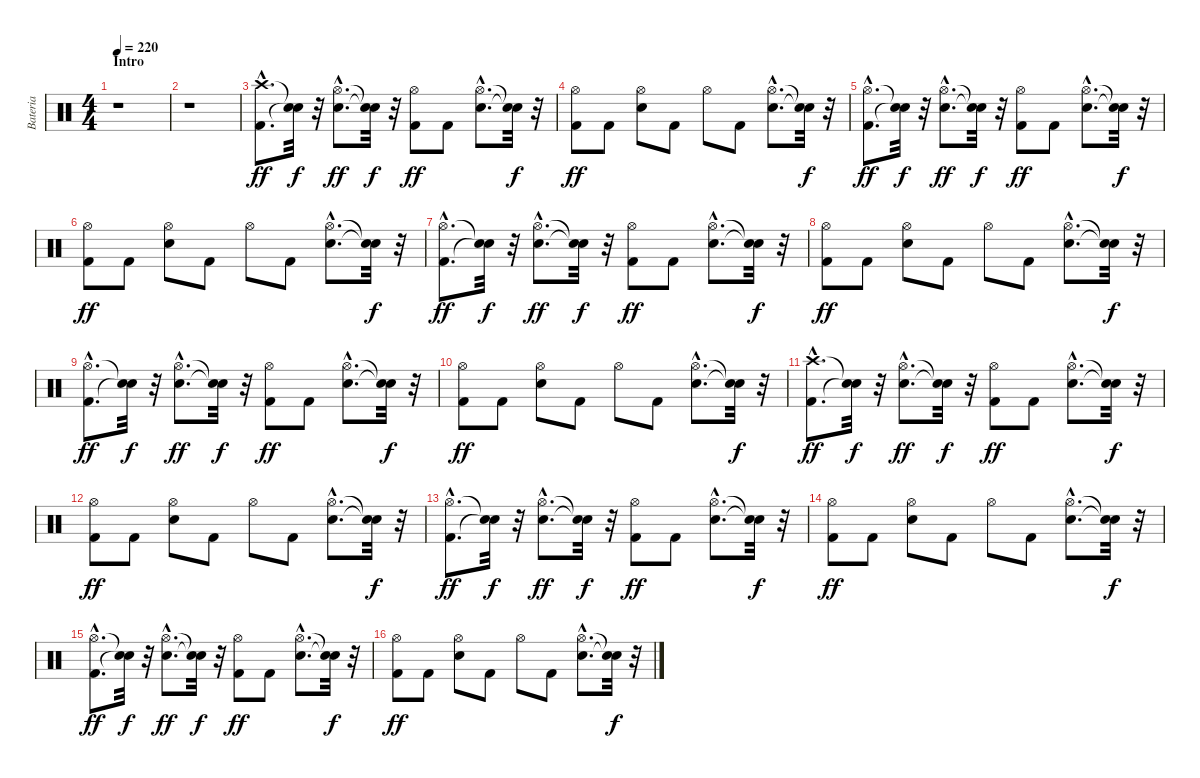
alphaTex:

\track ("Bateria" "Bateria") {instrument percussion}
\staff {score}
\articulation defaults
\ts (4 4)
\section ("" "Intro")
\tempo 220
\clef neutral
\ks c
r.1{dy ff} |
r.1 |
("Kick (hit) 2"{hac} "Crash high (hit)"{hac}).8{d} ("Snare (hit)"{t} "Snare (hit)"{t}).32{dy f} r.32 ("Electric Snare (hit)"{hac} "Hi-Hat (open)"{hac}).8{d dy ff} ("Snare (hit)"{t} "Snare (hit)"{t}).32{dy f} r.32 ("Kick (hit) 2" "Hi-Hat (open)").8{dy ff} "Kick (hit) 2".8 ("Electric Snare (hit)"{hac} "Hi-Hat (open)"{hac}).8{d} ("Snare (hit)"{t} "Snare (hit)"{t}).32{dy f} r.32 |
("Kick (hit) 2" "Hi-Hat (open)").8{dy ff} "Kick (hit) 2".8 ("Electric Snare (hit)" "Hi-Hat (open)").8 "Kick (hit) 2".8 "Hi-Hat (open)".8 "Kick (hit) 2".8 ("Electric Snare (hit)"{hac} "Hi-Hat (open)"{hac}).8{d} ("Snare (hit)"{t} "Snare (hit)"{t}).32{dy f} r.32 |
("Kick (hit) 2"{hac} "Hi-Hat (open)"{hac}).8{d dy ff} ("Snare (hit)"{t} "Snare (hit)"{t}).32{dy f} r.32 ("Electric Snare (hit)"{hac} "Hi-Hat (open)"{hac}).8{d dy ff} ("Snare (hit)"{t} "Snare (hit)"{t}).32{dy f} r.32 ("Kick (hit) 2" "Hi-Hat (open)").8{dy ff} "Kick (hit) 2".8 ("Electric Snare (hit)"{hac} "Hi-Hat (open)"{hac}).8{d} ("Snare (hit)"{t} "Snare (hit)"{t}).32{dy f} r.32 |
("Kick (hit) 2" "Hi-Hat (open)").8{dy ff} "Kick (hit) 2".8 ("Electric Snare (hit)" "Hi-Hat (open)").8 "Kick (hit) 2".8 "Hi-Hat (open)".8 "Kick (hit) 2".8 ("Electric Snare (hit)"{hac} "Hi-Hat (open)"{hac}).8{d} ("Snare (hit)"{t} "Snare (hit)"{t}).32{dy f} r.32 |
("Kick (hit) 2"{hac} "Hi-Hat (open)"{hac}).8{d dy ff} ("Snare (hit)"{t} "Snare (hit)"{t}).32{dy f} r.32 ("Electric Snare (hit)"{hac} "Hi-Hat (open)"{hac}).8{d dy ff} ("Snare (hit)"{t} "Snare (hit)"{t}).32{dy f} r.32 ("Kick (hit) 2" "Hi-Hat (open)").8{dy ff} "Kick (hit) 2".8 ("Electric Snare (hit)"{hac} "Hi-Hat (open)"{hac}).8{d} ("Snare (hit)"{t} "Snare (hit)"{t}).32{dy f} r.32 |
("Kick (hit) 2" "Hi-Hat (open)").8{dy ff} "Kick (hit) 2".8 ("Electric Snare (hit)" "Hi-Hat (open)").8 "Kick (hit) 2".8 "Hi-Hat (open)".8 "Kick (hit) 2".8 ("Electric Snare (hit)"{hac} "Hi-Hat (open)"{hac}).8{d} ("Snare (hit)"{t} "Snare (hit)"{t}).32{dy f} r.32 |
("Kick (hit) 2"{hac} "Hi-Hat (open)"{hac}).8{d dy ff} ("Snare (hit)"{t} "Snare (hit)"{t}).32{dy f} r.32 ("Electric Snare (hit)"{hac} "Hi-Hat (open)"{hac}).8{d dy ff} ("Snare (hit)"{t} "Snare (hit)"{t}).32{dy f} r.32 ("Kick (hit) 2" "Hi-Hat (open)").8{dy ff} "Kick (hit) 2".8 ("Electric Snare (hit)"{hac} "Hi-Hat (open)"{hac}).8{d} ("Snare (hit)"{t} "Snare (hit)"{t}).32{dy f} r.32 |
("Kick (hit) 2" "Hi-Hat (open)").8{dy ff} "Kick (hit) 2".8 ("Electric Snare (hit)" "Hi-Hat (open)").8 "Kick (hit) 2".8 "Hi-Hat (open)".8 "Kick (hit) 2".8 ("Electric Snare (hit)"{hac} "Hi-Hat (open)"{hac}).8{d} ("Snare (hit)"{t} "Snare (hit)"{t}).32{dy f} r.32 |
("Kick (hit) 2"{hac} "Crash high (hit)"{hac}).8{d dy ff} ("Snare (hit)"{t} "Snare (hit)"{t}).32{dy f} r.32 ("Electric Snare (hit)"{hac} "Hi-Hat (open)"{hac}).8{d dy ff} ("Snare (hit)"{t} "Snare (hit)"{t}).32{dy f} r.32 ("Kick (hit) 2" "Hi-Hat (open)").8{dy ff} "Kick (hit) 2".8 ("Electric Snare (hit)"{hac} "Hi-Hat (open)"{hac}).8{d} ("Snare (hit)"{t} "Snare (hit)"{t}).32{dy f} r.32 |
("Kick (hit) 2" "Hi-Hat (open)").8{dy ff} "Kick (hit) 2".8 ("Electric Snare (hit)" "Hi-Hat (open)").8 "Kick (hit) 2".8 "Hi-Hat (open)".8 "Kick (hit) 2".8 ("Electric Snare (hit)"{hac} "Hi-Hat (open)"{hac}).8{d} ("Snare (hit)"{t} "Snare (hit)"{t}).32{dy f} r.32 |
("Kick (hit) 2"{hac} "Hi-Hat (open)"{hac}).8{d dy ff} ("Snare (hit)"{t} "Snare (hit)"{t}).32{dy f} r.32 ("Electric Snare (hit)"{hac} "Hi-Hat (open)"{hac}).8{d dy ff} ("Snare (hit)"{t} "Snare (hit)"{t}).32{dy f} r.32 ("Kick (hit) 2" "Hi-Hat (open)").8{dy ff} "Kick (hit) 2".8 ("Electric Snare (hit)"{hac} "Hi-Hat (open)"{hac}).8{d} ("Snare (hit)"{t} "Snare (hit)"{t}).32{dy f} r.32 |
("Kick (hit) 2" "Hi-Hat (open)").8{dy ff} "Kick (hit) 2".8 ("Electric Snare (hit)" "Hi-Hat (open)").8 "Kick (hit) 2".8 "Hi-Hat (open)".8 "Kick (hit) 2".8 ("Electric Snare (hit)"{hac} "Hi-Hat (open)"{hac}).8{d} ("Snare (hit)"{t} "Snare (hit)"{t}).32{dy f} r.32 |
("Kick (hit) 2"{hac} "Hi-Hat (open)"{hac}).8{d dy ff} ("Snare (hit)"{t} "Snare (hit)"{t}).32{dy f} r.32 ("Electric Snare (hit)"{hac} "Hi-Hat (open)"{hac}).8{d dy ff} ("Snare (hit)"{t} "Snare (hit)"{t}).32{dy f} r.32 ("Kick (hit) 2" "Hi-Hat (open)").8{dy ff} "Kick (hit) 2".8 ("Electric Snare (hit)"{hac} "Hi-Hat (open)"{hac}).8{d} ("Snare (hit)"{t} "Snare (hit)"{t}).32{dy f} r.32 |
("Kick (hit) 2" "Hi-Hat (open)").8{dy ff} "Kick (hit) 2".8 ("Electric Snare (hit)" "Hi-Hat (open)").8 "Kick (hit) 2".8 "Hi-Hat (open)".8 "Kick (hit) 2".8 ("Electric Snare (hit)"{hac} "Hi-Hat (open)"{hac}).8{d} ("Snare (hit)"{t} "Snare (hit)"{t}).32{dy f} r.32
